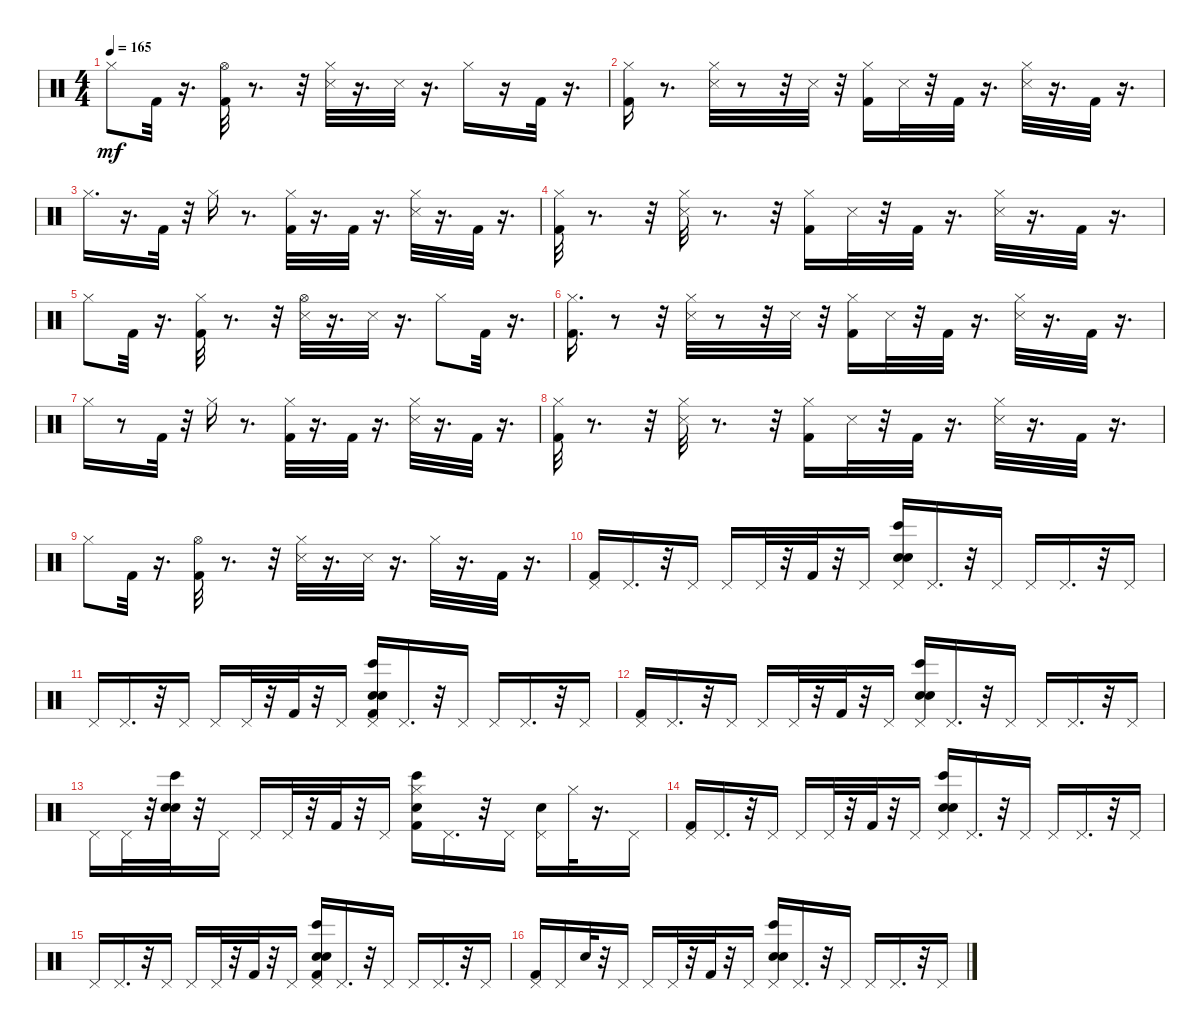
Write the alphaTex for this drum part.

\track (" " " ") {instrument percussion}
\staff {score}
\articulation defaults
\ts (4 4)
\tempo 165
\clef neutral
\ks c "Hi-Hat (closed)".8{dy mf} "Kick (hit) 2".32
r.16{d} ("Kick (hit) 2" "Hi-Hat (open)").32 r.8{d} r.32 ("Snare (side stick) 3" "Hi-Hat (closed)").32 r.16{d} "Snare (side stick) 3".32 r.16{d} "Hi-Hat (closed)".16 r.16 "Kick (hit) 2".32 r.16{d} |
("Kick (hit) 2" "Hi-Hat (closed)").16 r.8{d} ("Snare (side stick) 3" "Hi-Hat (closed)").32 r.8 r.32 "Snare (side stick) 3".32 r.32 ("Kick (hit) 2" "Hi-Hat (closed)").16 "Snare (side stick) 3".32 r.32 "Kick (hit) 2".32 r.16{d} ("Snare (side stick) 3" "Hi-Hat (closed)").32 r.16{d} "Kick (hit) 2".32 r.16{d} |
"Hi-Hat (closed)".16{d} r.16{d} "Kick (hit) 2".32 r.32 "Hi-Hat (closed)".16 r.8{d} ("Kick (hit) 2" "Hi-Hat (closed)").32 r.16{d} "Kick (hit) 2".32 r.16{d} ("Snare (side stick) 3" "Hi-Hat (closed)").32 r.16{d} "Kick (hit) 2".32 r.16{d} |
("Kick (hit) 2" "Hi-Hat (closed)").32 r.8{d} r.32 ("Snare (side stick) 3" "Hi-Hat (closed)").32 r.8{d} r.32 ("Kick (hit) 2" "Hi-Hat (closed)").16 "Snare (side stick) 3".32 r.32 "Kick (hit) 2".32 r.16{d} ("Snare (side stick) 3" "Hi-Hat (closed)").32 r.16{d} "Kick (hit) 2".32 r.16{d} |
"Hi-Hat (closed)".8 "Kick (hit) 2".32 r.16{d} ("Kick (hit) 2" "Hi-Hat (closed)").32 r.8{d} r.32 ("Snare (side stick) 3" "Hi-Hat (open)").32 r.16{d} "Snare (side stick) 3".32 r.16{d} "Hi-Hat (closed)".8 "Kick (hit) 2".32 r.16{d} |
("Kick (hit) 2" "Hi-Hat (closed)").16{d} r.8 r.32 ("Snare (side stick) 3" "Hi-Hat (closed)").32 r.8 r.32 "Snare (side stick) 3".32 r.32 ("Kick (hit) 2" "Hi-Hat (closed)").16 "Snare (side stick) 3".32 r.32 "Kick (hit) 2".32 r.16{d} ("Snare (side stick) 3" "Hi-Hat (closed)").32 r.16{d} "Kick (hit) 2".32 r.16{d} |
"Hi-Hat (closed)".16 r.8 "Kick (hit) 2".32 r.32 "Hi-Hat (closed)".16 r.8{d} ("Kick (hit) 2" "Hi-Hat (closed)").32 r.16{d} "Kick (hit) 2".32 r.16{d} ("Snare (side stick) 3" "Hi-Hat (closed)").32 r.16{d} "Kick (hit) 2".32 r.16{d} |
("Kick (hit) 2" "Hi-Hat (closed)").32 r.8{d} r.32 ("Snare (side stick) 3" "Hi-Hat (closed)").32 r.8{d} r.32 ("Kick (hit) 2" "Hi-Hat (closed)").16 "Snare (side stick) 3".32 r.32 "Kick (hit) 2".32 r.16{d} ("Snare (side stick) 3" "Hi-Hat (closed)").32 r.16{d} "Kick (hit) 2".32 r.16{d} |
"Hi-Hat (closed)".8 "Kick (hit) 2".32 r.16{d} ("Kick (hit) 2" "Hi-Hat (open)").32 r.8{d} r.32 ("Snare (side stick) 3" "Hi-Hat (closed)").32 r.16{d} "Snare (side stick) 3".32 r.16{d} "Hi-Hat (closed)".32 r.16{d} "Kick (hit) 2".32 r.16{d} |
("Kick (hit) 2" "Pedal Hi-Hat (hit)").16 "Pedal Hi-Hat (hit)".16{d} r.32 "Pedal Hi-Hat (hit)".16 "Pedal Hi-Hat (hit)".16 "Pedal Hi-Hat (hit)".32 r.32 "Kick (hit) 2".32 r.32 "Pedal Hi-Hat (hit)".16 ("Bongo High (hit)" "Hand Clap (hit)" "Electric Snare (hit)" "Pedal Hi-Hat (hit)").16 "Pedal Hi-Hat (hit)".16{d} r.32 "Pedal Hi-Hat (hit)".16 "Pedal Hi-Hat (hit)".16 "Pedal Hi-Hat (hit)".16{d} r.32 "Pedal Hi-Hat (hit)".16 |
"Pedal Hi-Hat (hit)".16 "Pedal Hi-Hat (hit)".16{d} r.32 "Pedal Hi-Hat (hit)".16 "Pedal Hi-Hat (hit)".16 "Pedal Hi-Hat (hit)".32 r.32 "Kick (hit) 2".32 r.32 "Pedal Hi-Hat (hit)".16 ("Bongo High (hit)" "Kick (hit) 2" "Hand Clap (hit)" "Electric Snare (hit)" "Pedal Hi-Hat (hit)").16 "Pedal Hi-Hat (hit)".16{d} r.32 "Pedal Hi-Hat (hit)".16 "Pedal Hi-Hat (hit)".16 "Pedal Hi-Hat (hit)".16{d} r.32 "Pedal Hi-Hat (hit)".16 |
("Kick (hit) 2" "Pedal Hi-Hat (hit)").16 "Pedal Hi-Hat (hit)".16{d} r.32 "Pedal Hi-Hat (hit)".16 "Pedal Hi-Hat (hit)".16 "Pedal Hi-Hat (hit)".32 r.32 "Kick (hit) 2".32 r.32 "Pedal Hi-Hat (hit)".16 ("Bongo High (hit)" "Hand Clap (hit)" "Electric Snare (hit)" "Pedal Hi-Hat (hit)").16 "Pedal Hi-Hat (hit)".16{d} r.32 "Pedal Hi-Hat (hit)".16 "Pedal Hi-Hat (hit)".16 "Pedal Hi-Hat (hit)".16{d} r.32 "Pedal Hi-Hat (hit)".16 |
"Pedal Hi-Hat (hit)".16 "Pedal Hi-Hat (hit)".32 r.32 ("Bongo High (hit)" "Hand Clap (hit)" "Electric Snare (hit)").32 r.32 "Pedal Hi-Hat (hit)".16 "Pedal Hi-Hat (hit)".16 "Pedal Hi-Hat (hit)".32 r.32 "Kick (hit) 2".32 r.32 "Pedal Hi-Hat (hit)".16 ("Bongo High (hit)" "Kick (hit) 2" "Hand Clap (hit)" "Hi-Hat (closed)").16 "Pedal Hi-Hat (hit)".16{d} r.32 "Pedal Hi-Hat (hit)".16 ("Electric Snare (hit)" "Pedal Hi-Hat (hit)").16 "Hi-Hat (closed)".32 r.16{d} "Pedal Hi-Hat (hit)".16 |
("Kick (hit) 2" "Pedal Hi-Hat (hit)").16 "Pedal Hi-Hat (hit)".16{d} r.32 "Pedal Hi-Hat (hit)".16 "Pedal Hi-Hat (hit)".16 "Pedal Hi-Hat (hit)".32 r.32 "Kick (hit) 2".32 r.32 "Pedal Hi-Hat (hit)".16 ("Bongo High (hit)" "Hand Clap (hit)" "Electric Snare (hit)" "Pedal Hi-Hat (hit)").16 "Pedal Hi-Hat (hit)".16{d} r.32 "Pedal Hi-Hat (hit)".16 "Pedal Hi-Hat (hit)".16 "Pedal Hi-Hat (hit)".16{d} r.32 "Pedal Hi-Hat (hit)".16 |
"Pedal Hi-Hat (hit)".16 "Pedal Hi-Hat (hit)".16{d} r.32 "Pedal Hi-Hat (hit)".16 "Pedal Hi-Hat (hit)".16 "Pedal Hi-Hat (hit)".32 r.32 "Kick (hit) 2".32 r.32 "Pedal Hi-Hat (hit)".16 ("Bongo High (hit)" "Kick (hit) 2" "Hand Clap (hit)" "Electric Snare (hit)" "Pedal Hi-Hat (hit)").16 "Pedal Hi-Hat (hit)".16{d} r.32 "Pedal Hi-Hat (hit)".16 "Pedal Hi-Hat (hit)".16 "Pedal Hi-Hat (hit)".16{d} r.32 "Pedal Hi-Hat (hit)".16 |
("Kick (hit) 2" "Pedal Hi-Hat (hit)").16 "Pedal Hi-Hat (hit)".16 "Electric Snare (hit)".32 r.32 "Pedal Hi-Hat (hit)".16 "Pedal Hi-Hat (hit)".16 "Pedal Hi-Hat (hit)".32 r.32 "Kick (hit) 2".32 r.32 "Pedal Hi-Hat (hit)".16 ("Bongo High (hit)" "Hand Clap (hit)" "Electric Snare (hit)" "Pedal Hi-Hat (hit)").16 "Pedal Hi-Hat (hit)".16{d} r.32 "Pedal Hi-Hat (hit)".16 "Pedal Hi-Hat (hit)".16 "Pedal Hi-Hat (hit)".16{d} r.32 "Pedal Hi-Hat (hit)".16
